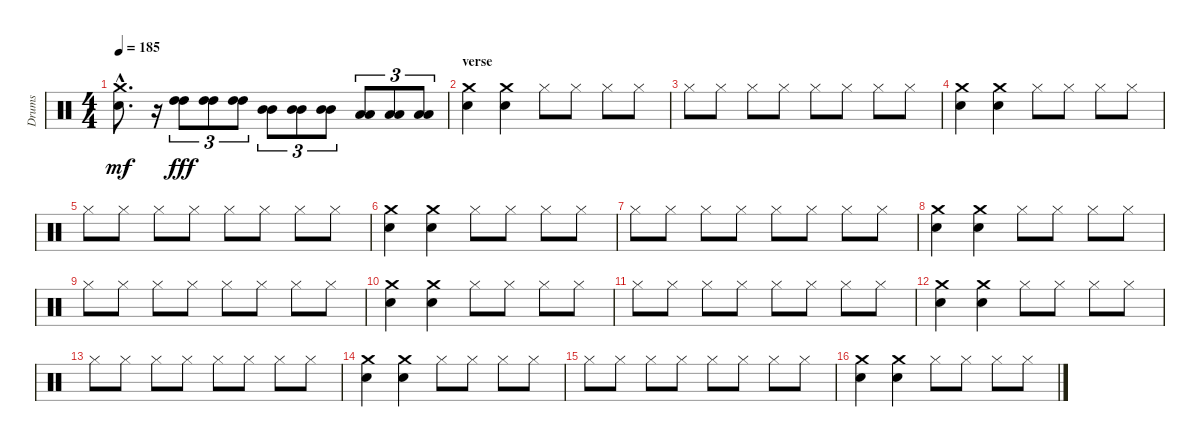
\track ("Drums" "Drums") {instrument percussion}
\staff {score}
\articulation defaults
\ts (4 4)
\tempo 185
\clef neutral
\ks c
("Crash medium (hit)"{hac} "Electric Snare (hit)"{hac}).8{d dy mf} r.16 ("High Tom (hit)" "High Tom (hit)").8{tu (3 2) dy fff} ("High Tom (hit)" "High Tom (hit)").8{tu (3 2)} ("High Tom (hit)" "High Tom (hit)").8{tu (3 2)} ("Mid Tom (hit)" "Mid Tom (hit)").8{tu (3 2)} ("Mid Tom (hit)" "Mid Tom (hit)").8{tu (3 2)} ("Mid Tom (hit)" "Mid Tom (hit)").8{tu (3 2)} ("Low Tom (hit)" "Low Tom (hit)").8{tu (3 2)} ("Low Tom (hit)" "Low Tom (hit)").8{tu (3 2)} ("Low Tom (hit)" "Low Tom (hit)").8{tu (3 2)} |
\section ("" "verse")
("Crash medium (hit)" "Snare (hit) 2").4 ("Crash medium (hit)" "Snare (hit) 2").4 "Hi-Hat (closed)".8 "Hi-Hat (closed)".8 "Hi-Hat (closed)".8 "Hi-Hat (closed)".8 |
"Hi-Hat (closed)".8 "Hi-Hat (closed)".8 "Hi-Hat (closed)".8 "Hi-Hat (closed)".8 "Hi-Hat (closed)".8 "Hi-Hat (closed)".8 "Hi-Hat (closed)".8 "Hi-Hat (closed)".8 |
("Crash medium (hit)" "Snare (hit) 2").4 ("Crash medium (hit)" "Snare (hit) 2").4 "Hi-Hat (closed)".8 "Hi-Hat (closed)".8 "Hi-Hat (closed)".8 "Hi-Hat (closed)".8 |
"Hi-Hat (closed)".8 "Hi-Hat (closed)".8 "Hi-Hat (closed)".8 "Hi-Hat (closed)".8 "Hi-Hat (closed)".8 "Hi-Hat (closed)".8 "Hi-Hat (closed)".8 "Hi-Hat (closed)".8 |
("Crash medium (hit)" "Snare (hit) 2").4 ("Crash medium (hit)" "Snare (hit) 2").4 "Hi-Hat (closed)".8 "Hi-Hat (closed)".8 "Hi-Hat (closed)".8 "Hi-Hat (closed)".8 |
"Hi-Hat (closed)".8 "Hi-Hat (closed)".8 "Hi-Hat (closed)".8 "Hi-Hat (closed)".8 "Hi-Hat (closed)".8 "Hi-Hat (closed)".8 "Hi-Hat (closed)".8 "Hi-Hat (closed)".8 |
("Crash medium (hit)" "Snare (hit) 2").4 ("Crash medium (hit)" "Snare (hit) 2").4 "Hi-Hat (closed)".8 "Hi-Hat (closed)".8 "Hi-Hat (closed)".8 "Hi-Hat (closed)".8 |
"Hi-Hat (closed)".8 "Hi-Hat (closed)".8 "Hi-Hat (closed)".8 "Hi-Hat (closed)".8 "Hi-Hat (closed)".8 "Hi-Hat (closed)".8 "Hi-Hat (closed)".8 "Hi-Hat (closed)".8 |
("Crash medium (hit)" "Snare (hit) 2").4 ("Crash medium (hit)" "Snare (hit) 2").4 "Hi-Hat (closed)".8 "Hi-Hat (closed)".8 "Hi-Hat (closed)".8 "Hi-Hat (closed)".8 |
"Hi-Hat (closed)".8 "Hi-Hat (closed)".8 "Hi-Hat (closed)".8 "Hi-Hat (closed)".8 "Hi-Hat (closed)".8 "Hi-Hat (closed)".8 "Hi-Hat (closed)".8 "Hi-Hat (closed)".8 |
("Crash medium (hit)" "Snare (hit) 2").4 ("Crash medium (hit)" "Snare (hit) 2").4 "Hi-Hat (closed)".8 "Hi-Hat (closed)".8 "Hi-Hat (closed)".8 "Hi-Hat (closed)".8 |
"Hi-Hat (closed)".8 "Hi-Hat (closed)".8 "Hi-Hat (closed)".8 "Hi-Hat (closed)".8 "Hi-Hat (closed)".8 "Hi-Hat (closed)".8 "Hi-Hat (closed)".8 "Hi-Hat (closed)".8 |
("Crash medium (hit)" "Snare (hit) 2").4 ("Crash medium (hit)" "Snare (hit) 2").4 "Hi-Hat (closed)".8 "Hi-Hat (closed)".8 "Hi-Hat (closed)".8 "Hi-Hat (closed)".8 |
"Hi-Hat (closed)".8 "Hi-Hat (closed)".8 "Hi-Hat (closed)".8 "Hi-Hat (closed)".8 "Hi-Hat (closed)".8 "Hi-Hat (closed)".8 "Hi-Hat (closed)".8 "Hi-Hat (closed)".8 |
("Crash medium (hit)" "Snare (hit) 2").4 ("Crash medium (hit)" "Snare (hit) 2").4 "Hi-Hat (closed)".8 "Hi-Hat (closed)".8 "Hi-Hat (closed)".8 "Hi-Hat (closed)".8
